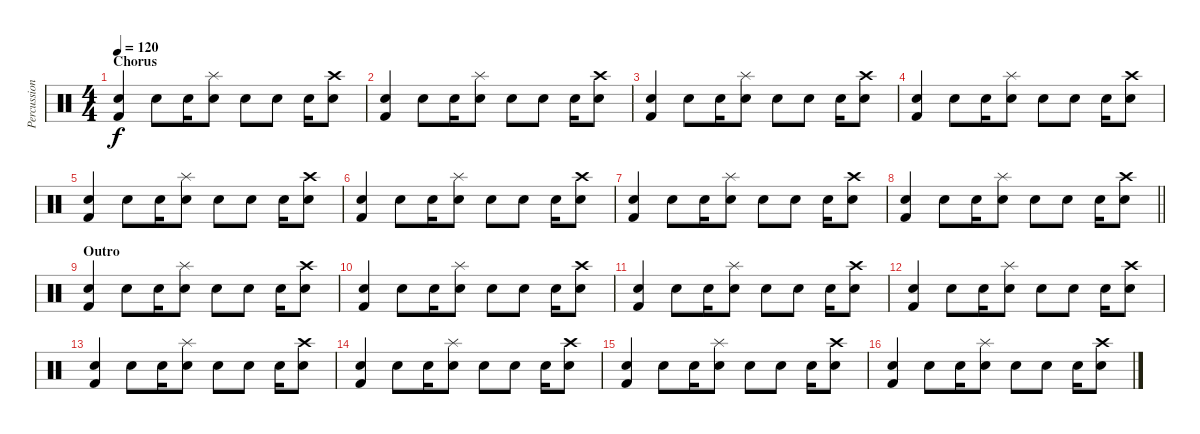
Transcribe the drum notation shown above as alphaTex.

\track ("Percussion" "Percussion") {instrument percussion}
\staff {score}
\articulation defaults
\ts (4 4)
\section ("" "Chorus")
\tempo 120
\clef neutral
\ks c
("Electric Snare (hit)" "Kick (hit) 2").4{dy f} "Electric Snare (hit)".8 "Electric Snare (hit)".16 ("Electric Snare (hit)" "Splash (hit)").8 "Electric Snare (hit)".8 "Electric Snare (hit)".8 "Electric Snare (hit)".16 ("Electric Snare (hit)" "Crash high (hit)").8 |
("Electric Snare (hit)" "Kick (hit) 2").4 "Electric Snare (hit)".8 "Electric Snare (hit)".16 ("Electric Snare (hit)" "Splash (hit)").8 "Electric Snare (hit)".8 "Electric Snare (hit)".8 "Electric Snare (hit)".16 ("Electric Snare (hit)" "Crash high (hit)").8 |
("Electric Snare (hit)" "Kick (hit) 2").4 "Electric Snare (hit)".8 "Electric Snare (hit)".16 ("Electric Snare (hit)" "Splash (hit)").8 "Electric Snare (hit)".8 "Electric Snare (hit)".8 "Electric Snare (hit)".16 ("Electric Snare (hit)" "Crash high (hit)").8 |
("Electric Snare (hit)" "Kick (hit) 2").4 "Electric Snare (hit)".8 "Electric Snare (hit)".16 ("Electric Snare (hit)" "Splash (hit)").8 "Electric Snare (hit)".8 "Electric Snare (hit)".8 "Electric Snare (hit)".16 ("Electric Snare (hit)" "Crash high (hit)").8 |
("Electric Snare (hit)" "Kick (hit) 2").4 "Electric Snare (hit)".8 "Electric Snare (hit)".16 ("Electric Snare (hit)" "Splash (hit)").8 "Electric Snare (hit)".8 "Electric Snare (hit)".8 "Electric Snare (hit)".16 ("Electric Snare (hit)" "Crash high (hit)").8 |
("Electric Snare (hit)" "Kick (hit) 2").4 "Electric Snare (hit)".8 "Electric Snare (hit)".16 ("Electric Snare (hit)" "Splash (hit)").8 "Electric Snare (hit)".8 "Electric Snare (hit)".8 "Electric Snare (hit)".16 ("Electric Snare (hit)" "Crash high (hit)").8 |
("Electric Snare (hit)" "Kick (hit) 2").4 "Electric Snare (hit)".8 "Electric Snare (hit)".16 ("Electric Snare (hit)" "Splash (hit)").8 "Electric Snare (hit)".8 "Electric Snare (hit)".8 "Electric Snare (hit)".16 ("Electric Snare (hit)" "Crash high (hit)").8 |
\barLineRight lightlight
("Electric Snare (hit)" "Kick (hit) 2").4 "Electric Snare (hit)".8 "Electric Snare (hit)".16 ("Electric Snare (hit)" "Splash (hit)").8 "Electric Snare (hit)".8 "Electric Snare (hit)".8 "Electric Snare (hit)".16 ("Electric Snare (hit)" "Crash high (hit)").8 |
\section ("" "Outro")
("Electric Snare (hit)" "Kick (hit) 2").4 "Electric Snare (hit)".8 "Electric Snare (hit)".16 ("Electric Snare (hit)" "Splash (hit)").8 "Electric Snare (hit)".8 "Electric Snare (hit)".8 "Electric Snare (hit)".16 ("Electric Snare (hit)" "Crash high (hit)").8 |
("Electric Snare (hit)" "Kick (hit) 2").4 "Electric Snare (hit)".8 "Electric Snare (hit)".16 ("Electric Snare (hit)" "Splash (hit)").8 "Electric Snare (hit)".8 "Electric Snare (hit)".8 "Electric Snare (hit)".16 ("Electric Snare (hit)" "Crash high (hit)").8 |
("Electric Snare (hit)" "Kick (hit) 2").4 "Electric Snare (hit)".8 "Electric Snare (hit)".16 ("Electric Snare (hit)" "Splash (hit)").8 "Electric Snare (hit)".8 "Electric Snare (hit)".8 "Electric Snare (hit)".16 ("Electric Snare (hit)" "Crash high (hit)").8 |
("Electric Snare (hit)" "Kick (hit) 2").4 "Electric Snare (hit)".8 "Electric Snare (hit)".16 ("Electric Snare (hit)" "Splash (hit)").8 "Electric Snare (hit)".8 "Electric Snare (hit)".8 "Electric Snare (hit)".16 ("Electric Snare (hit)" "Crash high (hit)").8 |
("Electric Snare (hit)" "Kick (hit) 2").4 "Electric Snare (hit)".8 "Electric Snare (hit)".16 ("Electric Snare (hit)" "Splash (hit)").8 "Electric Snare (hit)".8 "Electric Snare (hit)".8 "Electric Snare (hit)".16 ("Electric Snare (hit)" "Crash high (hit)").8 |
("Electric Snare (hit)" "Kick (hit) 2").4 "Electric Snare (hit)".8 "Electric Snare (hit)".16 ("Electric Snare (hit)" "Splash (hit)").8 "Electric Snare (hit)".8 "Electric Snare (hit)".8 "Electric Snare (hit)".16 ("Electric Snare (hit)" "Crash high (hit)").8 |
("Electric Snare (hit)" "Kick (hit) 2").4 "Electric Snare (hit)".8 "Electric Snare (hit)".16 ("Electric Snare (hit)" "Splash (hit)").8 "Electric Snare (hit)".8 "Electric Snare (hit)".8 "Electric Snare (hit)".16 ("Electric Snare (hit)" "Crash high (hit)").8 |
("Electric Snare (hit)" "Kick (hit) 2").4 "Electric Snare (hit)".8 "Electric Snare (hit)".16 ("Electric Snare (hit)" "Splash (hit)").8 "Electric Snare (hit)".8 "Electric Snare (hit)".8 "Electric Snare (hit)".16 ("Electric Snare (hit)" "Crash high (hit)").8
